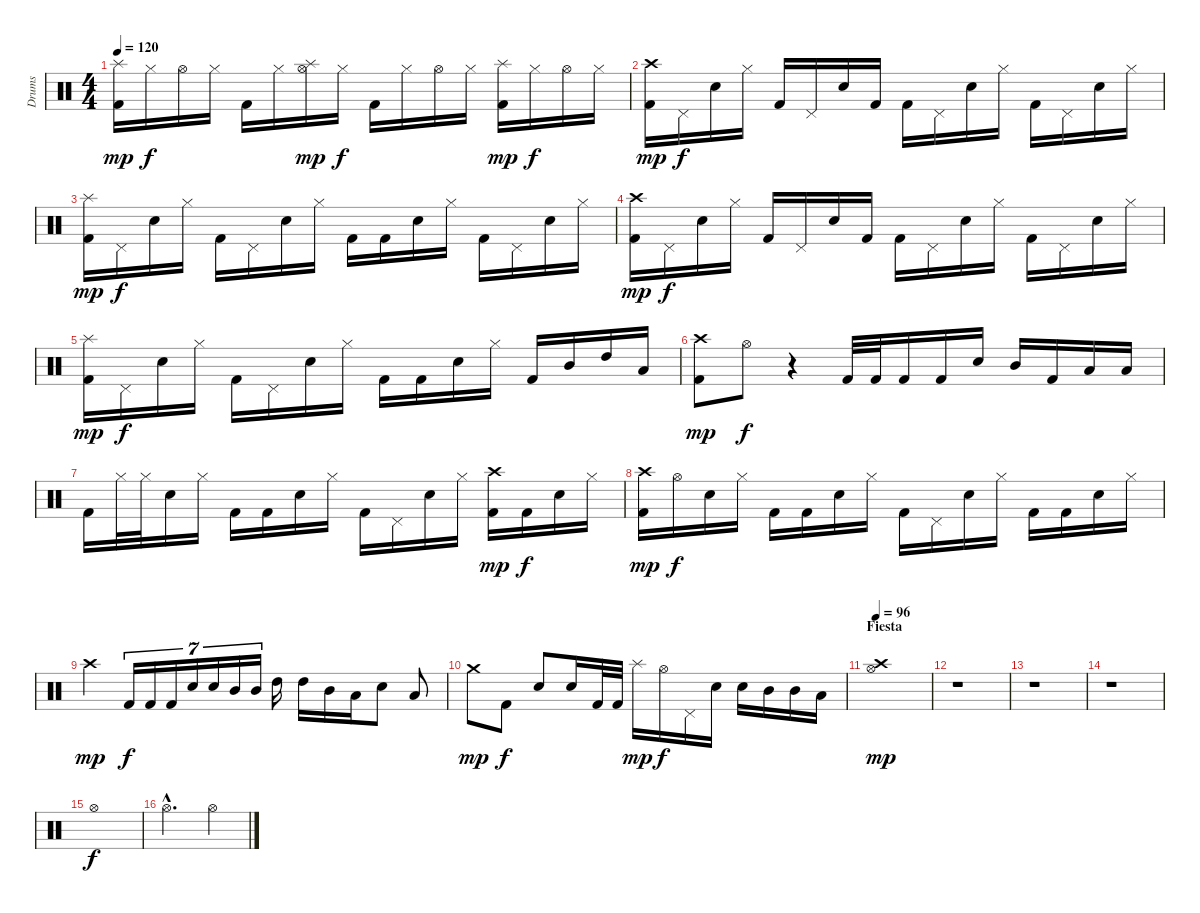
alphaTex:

\track ("Drums" "Drums") {instrument percussion}
\staff {score}
\articulation defaults
\ts (4 4)
\tempo 120
\clef neutral
\ks c
("Kick (hit) 2" "Splash (hit)").16{dy mp} "Hi-Hat (closed)".16{dy f} "Hi-Hat (open)".16 "Hi-Hat (closed)".16 "Kick (hit) 2".16 "Hi-Hat (closed)".16 ("Hi-Hat (open)" "Splash (hit)").16{dy mp} "Hi-Hat (closed)".16{dy f} "Kick (hit) 2".16 "Hi-Hat (closed)".16 "Hi-Hat (open)".16 "Hi-Hat (closed)".16 ("Kick (hit) 2" "Splash (hit)").16{dy mp} "Hi-Hat (closed)".16{dy f} "Hi-Hat (open)".16 "Hi-Hat (closed)".16 |
("Kick (hit) 2" "Crash high (hit)").16{dy mp} "Pedal Hi-Hat (hit)".16{dy f} "Electric Snare (hit)".16 "Hi-Hat (closed)".16 "Kick (hit) 2".16 "Pedal Hi-Hat (hit)".16 "Electric Snare (hit)".16 "Kick (hit) 2".16 "Kick (hit) 2".16 "Pedal Hi-Hat (hit)".16 "Electric Snare (hit)".16 "Hi-Hat (closed)".16 "Kick (hit) 2".16 "Pedal Hi-Hat (hit)".16 "Electric Snare (hit)".16 "Hi-Hat (closed)".16 |
("Kick (hit) 2" "Splash (hit)").16{dy mp} "Pedal Hi-Hat (hit)".16{dy f} "Electric Snare (hit)".16 "Hi-Hat (closed)".16 "Kick (hit) 2".16 "Pedal Hi-Hat (hit)".16 "Electric Snare (hit)".16 "Hi-Hat (closed)".16 "Kick (hit) 2".16 "Kick (hit) 2".16 "Electric Snare (hit)".16 "Hi-Hat (closed)".16 "Kick (hit) 2".16 "Pedal Hi-Hat (hit)".16 "Electric Snare (hit)".16 "Hi-Hat (closed)".16 |
("Kick (hit) 2" "Crash high (hit)").16{dy mp} "Pedal Hi-Hat (hit)".16{dy f} "Electric Snare (hit)".16 "Hi-Hat (closed)".16 "Kick (hit) 2".16 "Pedal Hi-Hat (hit)".16 "Electric Snare (hit)".16 "Kick (hit) 2".16 "Kick (hit) 2".16 "Pedal Hi-Hat (hit)".16 "Electric Snare (hit)".16 "Hi-Hat (closed)".16 "Kick (hit) 2".16 "Pedal Hi-Hat (hit)".16 "Electric Snare (hit)".16 "Hi-Hat (closed)".16 |
("Kick (hit) 2" "Splash (hit)").16{dy mp} "Pedal Hi-Hat (hit)".16{dy f} "Electric Snare (hit)".16 "Hi-Hat (closed)".16 "Kick (hit) 2".16 "Pedal Hi-Hat (hit)".16 "Electric Snare (hit)".16 "Hi-Hat (closed)".16 "Kick (hit) 2".16 "Kick (hit) 2".16 "Electric Snare (hit)".16 "Hi-Hat (closed)".16 "Kick (hit) 2".16 "Mid Tom (hit)".16 "High Tom (hit)".16 "Low Tom (hit)".16 |
("Kick (hit) 2" "Crash high (hit)").8{dy mp} "Hi-Hat (open)".8{dy f} r.4 "Kick (hit) 2".32 "Kick (hit) 2".32 "Kick (hit) 2".16 "Kick (hit) 2".16 "Electric Snare (hit)".16 "Mid Tom (hit)".16 "Kick (hit) 2".16 "Low Tom (hit)".16 "Low Tom (hit)".16 |
"Kick (hit) 2".16 "Hi-Hat (closed)".32 "Hi-Hat (closed)".32 "Electric Snare (hit)".16 "Hi-Hat (closed)".16 "Kick (hit) 2".16 "Kick (hit) 2".16 "Electric Snare (hit)".16 "Hi-Hat (closed)".16 "Kick (hit) 2".16 "Pedal Hi-Hat (hit)".16 "Electric Snare (hit)".16 "Hi-Hat (closed)".16 ("Kick (hit) 2" "Crash high (hit)").16{dy mp} "Kick (hit) 2".16{dy f} "Electric Snare (hit)".16 "Hi-Hat (closed)".16 |
("Kick (hit) 2" "Crash high (hit)").16{dy mp} "Hi-Hat (open)".16{dy f} "Electric Snare (hit)".16 "Hi-Hat (closed)".16 "Kick (hit) 2".16 "Kick (hit) 2".16 "Electric Snare (hit)".16 "Hi-Hat (closed)".16 "Kick (hit) 2".16 "Pedal Hi-Hat (hit)".16 "Electric Snare (hit)".16 "Hi-Hat (closed)".16 "Kick (hit) 2".16 "Kick (hit) 2".16 "Electric Snare (hit)".16 "Hi-Hat (closed)".16 |
"Crash high (hit)".4{dy mp} "Kick (hit) 2".16{tu (7 4) dy f} "Kick (hit) 2".16{tu (7 4)} "Kick (hit) 2".16{tu (7 4)} "Electric Snare (hit)".16{tu (7 4)} "Electric Snare (hit)".16{tu (7 4)} "Mid Tom (hit)".16{tu (7 4)} "Mid Tom (hit)".16{tu (7 4)} "High Tom (hit)".16 "High Tom (hit)".16 "Mid Tom (hit)".16 "Low Tom (hit)".16 "Electric Snare (hit)".8 "Low Tom (hit)".8 |
"Crash medium (hit)".8{dy mp} "Kick (hit) 2".8{dy f} "Electric Snare (hit)".8 "Electric Snare (hit)".16 "Kick (hit) 2".32 "Kick (hit) 2".32 "Splash (hit)".16{dy mp} "Hi-Hat (open)".16{dy f} "Pedal Hi-Hat (hit)".16 "Electric Snare (hit)".16 "Electric Snare (hit)".16 "Mid Tom (hit)".16 "Mid Tom (hit)".16 "Low Tom (hit)".16 |
\section ("" "Fiesta")
\tempo 96
("Hi-Hat (open)" "Crash high (hit)").1{dy mp} |
r.1 |
r.1 |
r.1 |
"Hi-Hat (open)".1{dy f} |
"Hi-Hat (open)"{hac}.2{d} "Hi-Hat (open)".4
